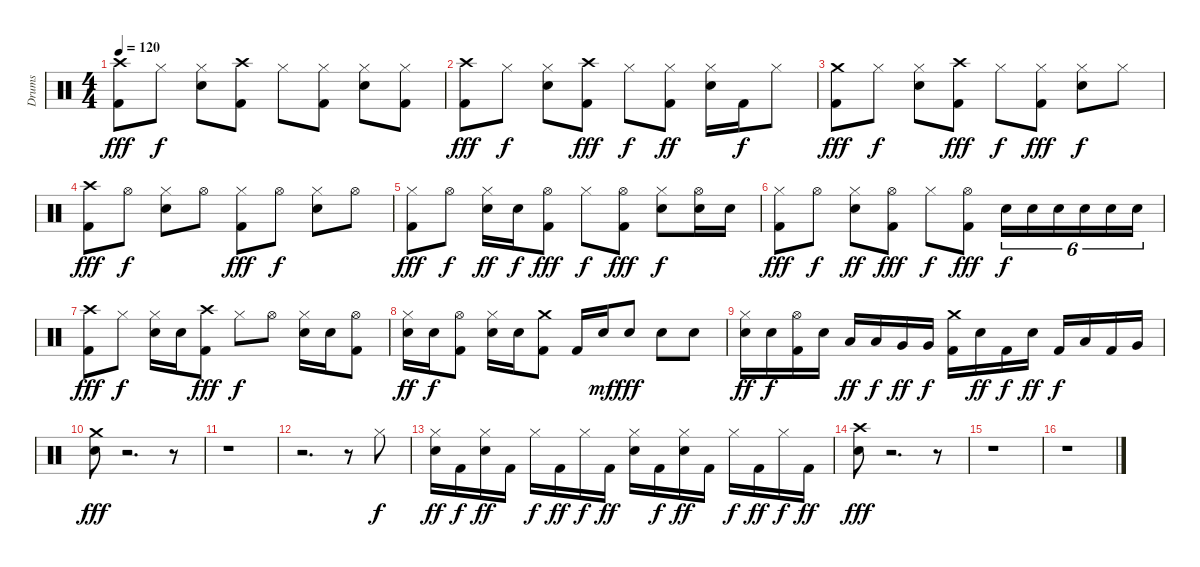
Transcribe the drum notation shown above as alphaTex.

\track ("Drums" "Drums") {instrument percussion}
\staff {score}
\articulation defaults
\ts (4 4)
\tempo 120
\clef neutral
\ks c
("Kick (hit) 2" "Crash high (hit)").8{dy fff} "Hi-Hat (closed)".8{dy f} ("Snare (hit) 2" "Hi-Hat (closed)").8 ("Kick (hit) 2" "Crash high (hit)").8 "Hi-Hat (closed)".8 ("Kick (hit) 2" "Hi-Hat (closed)").8 ("Snare (hit) 2" "Hi-Hat (closed)").8 ("Kick (hit) 2" "Hi-Hat (closed)").8 |
("Kick (hit) 2" "Crash high (hit)").8{dy fff} "Hi-Hat (closed)".8{dy f} ("Snare (hit) 2" "Hi-Hat (closed)").8 ("Kick (hit) 2" "Crash high (hit)").8{dy fff} "Hi-Hat (closed)".8{dy f} ("Kick (hit) 2" "Hi-Hat (closed)").8{dy ff} ("Snare (hit) 2" "Hi-Hat (closed)").16 "Kick (hit) 2".16{dy f} "Hi-Hat (closed)".8 |
("Kick (hit) 2" "Crash medium (hit)").8{dy fff} "Hi-Hat (closed)".8{dy f} ("Snare (hit) 2" "Hi-Hat (closed)").8 ("Kick (hit) 2" "Crash high (hit)").8{dy fff} "Hi-Hat (closed)".8{dy f} ("Kick (hit) 2" "Hi-Hat (closed)").8{dy fff} ("Snare (hit) 2" "Hi-Hat (closed)").8{dy f} "Hi-Hat (closed)".8 |
("Kick (hit) 2" "Crash high (hit)").8{dy fff} "Hi-Hat (open)".8{dy f} ("Snare (hit) 2" "Hi-Hat (closed)").8 "Hi-Hat (open)".8 ("Kick (hit) 2" "Hi-Hat (closed)").8{dy fff} "Hi-Hat (open)".8{dy f} ("Snare (hit) 2" "Hi-Hat (closed)").8 "Hi-Hat (open)".8 |
("Kick (hit) 2" "Hi-Hat (closed)").8{dy fff} "Hi-Hat (open)".8{dy f} ("Snare (hit) 2" "Hi-Hat (closed)").16{dy ff} "Snare (hit) 2".16{dy f} ("Kick (hit) 2" "Hi-Hat (open)").8{dy fff} "Hi-Hat (closed)".8{dy f} ("Kick (hit) 2" "Hi-Hat (open)").8{dy fff} ("Snare (hit) 2" "Hi-Hat (closed)").8{dy f} ("Snare (hit) 2" "Hi-Hat (open)").16 "Snare (hit) 2".16 |
("Kick (hit) 2" "Hi-Hat (closed)").8{dy fff} "Hi-Hat (open)".8{dy f} ("Snare (hit) 2" "Hi-Hat (closed)").8{dy ff} ("Kick (hit) 2" "Hi-Hat (open)").8{dy fff} "Hi-Hat (closed)".8{dy f} ("Kick (hit) 2" "Hi-Hat (open)").8{dy fff} "Snare (hit) 2".16{tu (6 4) dy f} "Snare (hit) 2".16{tu (6 4)} "Snare (hit) 2".16{tu (6 4)} "Snare (hit) 2".16{tu (6 4)} "Snare (hit) 2".16{tu (6 4)} "Snare (hit) 2".16{tu (6 4)} |
("Kick (hit) 2" "Crash high (hit)").8{dy fff} "Hi-Hat (closed)".8{dy f} ("Snare (hit) 2" "Hi-Hat (closed)").16 "Snare (hit) 2".16 ("Kick (hit) 2" "Crash high (hit)").8{dy fff} "Hi-Hat (closed)".8{dy f} "Hi-Hat (open)".8 ("Snare (hit) 2" "Hi-Hat (closed)").16 "Snare (hit) 2".16 ("Kick (hit) 2" "Hi-Hat (open)").8 |
("Snare (hit) 2" "Hi-Hat (closed)").16{dy ff} "Snare (hit) 2".16{dy f} ("Kick (hit) 2" "Hi-Hat (open)").8 ("Snare (hit) 2" "Hi-Hat (closed)").16 "Snare (hit) 2".16 ("Kick (hit) 2" "Crash medium (hit)").8 "Kick (hit) 2".16 "Snare (hit) 2".16{dy mf} "Snare (hit) 2".8{dy fff} "Snare (hit) 2".8 "Snare (hit) 2".8 |
("Snare (hit) 2" "Hi-Hat (closed)").16{dy ff} "Snare (hit) 2".16{dy f} ("Kick (hit) 2" "Hi-Hat (open)").16 "Snare (hit) 2".16 "Low Tom (hit)".16{dy ff} "Low Tom (hit)".16{dy f} "Very Low Tom (hit)".16{dy ff} "Very Low Tom (hit)".16{dy f} ("Kick (hit) 2" "Crash medium (hit)").16 "Snare (hit) 2".16{dy ff} "Kick (hit) 2".16{dy f} "Snare (hit) 2".16{dy ff} "Kick (hit) 2".16{dy f} "Low Tom (hit)".16 "Kick (hit) 2".16 "Very Low Tom (hit)".16 |
("Snare (hit) 2" "Crash medium (hit)").8{dy fff} r.2{d} r.8 |
r.1 |
r.2{d} r.8 "Hi-Hat (closed)".8{dy f} |
("Snare (hit) 2" "Hi-Hat (closed)").16{dy ff} "Kick (hit) 2".16{dy f} ("Snare (hit) 2" "Hi-Hat (closed)").16{dy ff} "Kick (hit) 2".16 "Hi-Hat (closed)".16{dy f} "Kick (hit) 2".16{dy ff} "Hi-Hat (closed)".16{dy f} "Kick (hit) 2".16{dy ff} ("Snare (hit) 2" "Hi-Hat (closed)").16 "Kick (hit) 2".16{dy f} ("Snare (hit) 2" "Hi-Hat (closed)").16{dy ff} "Kick (hit) 2".16 "Hi-Hat (closed)".16{dy f} "Kick (hit) 2".16{dy ff} "Hi-Hat (closed)".16{dy f} "Kick (hit) 2".16{dy ff} |
("Snare (hit) 2" "Crash high (hit)").8{dy fff} r.2{d} r.8 |
r.1 |
r.1
